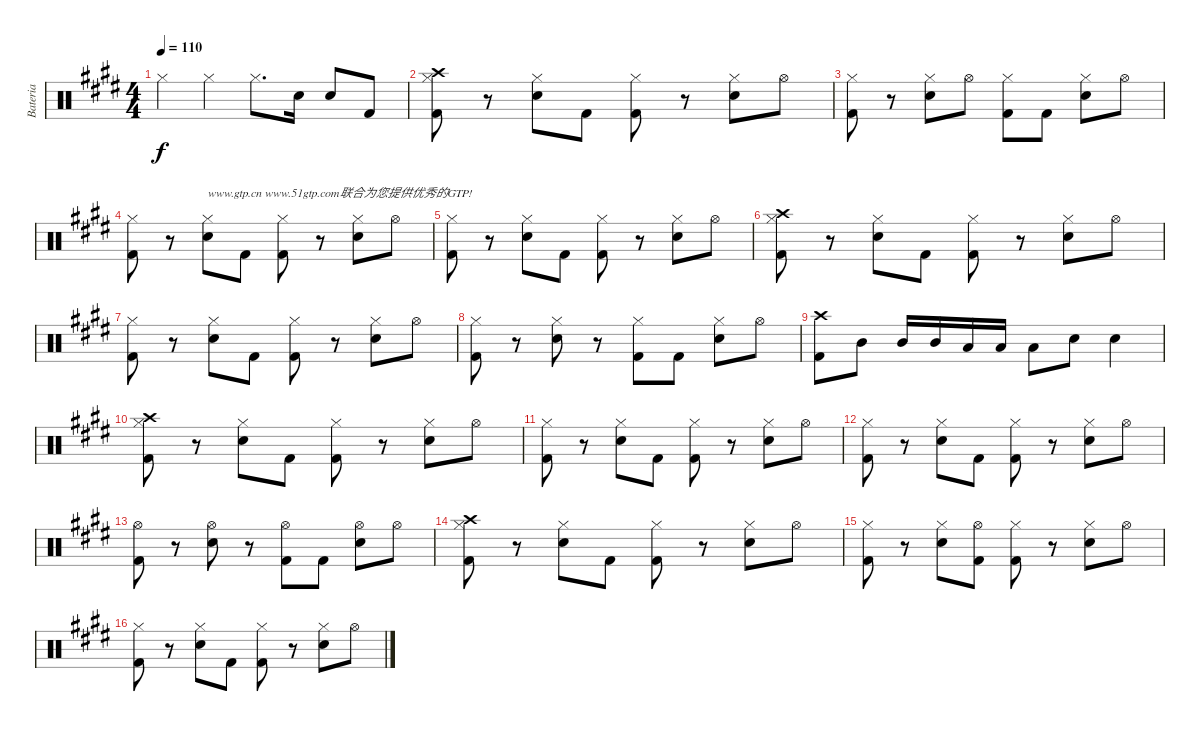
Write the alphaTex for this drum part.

\track ("Bateria" "Bateria") {instrument percussion}
\staff {score}
\articulation defaults
\ts (4 4)
\section ("" "")
\tempo 110
\clef neutral
\ks e "Hi-Hat (closed)".4{dy f} "Hi-Hat (closed)".4 "Hi-Hat (closed)".8{d} "Snare (hit) 2".16 "Snare (hit) 2".8 "Kick (hit) 2".8
|
("Hi-Hat (closed)" "Kick (hit) 2" "Crash high (hit)").8 r.8 ("Hi-Hat (closed)" "Snare (hit) 2").8 "Kick (hit) 2".8 ("Hi-Hat (closed)" "Kick (hit) 2").8 r.8 ("Hi-Hat (closed)" "Snare (hit) 2").8 "Hi-Hat (open)".8 |
("Hi-Hat (closed)" "Kick (hit) 2").8 r.8 ("Hi-Hat (closed)" "Snare (hit) 2").8 "Hi-Hat (open)".8 ("Hi-Hat (closed)" "Kick (hit) 2").8 "Kick (hit) 2".8 ("Hi-Hat (closed)" "Snare (hit) 2").8 "Hi-Hat (open)".8 |
("Hi-Hat (closed)" "Kick (hit) 2").8 r.8 ("Hi-Hat (closed)" "Snare (hit) 2").8{txt "www.gtp.cn www.51gtp.com联合为您提供优秀的GTP!"} "Kick (hit) 2".8 ("Hi-Hat (closed)" "Kick (hit) 2").8 r.8 ("Hi-Hat (closed)" "Snare (hit) 2").8 "Hi-Hat (open)".8 |
("Hi-Hat (closed)" "Kick (hit) 2").8 r.8 ("Hi-Hat (closed)" "Snare (hit) 2").8 "Kick (hit) 2".8 ("Hi-Hat (closed)" "Kick (hit) 2").8 r.8 ("Hi-Hat (closed)" "Snare (hit) 2").8 "Hi-Hat (open)".8 |
("Hi-Hat (closed)" "Kick (hit) 2" "Crash high (hit)").8 r.8 ("Hi-Hat (closed)" "Snare (hit) 2").8 "Kick (hit) 2".8 ("Hi-Hat (closed)" "Kick (hit) 2").8 r.8 ("Hi-Hat (closed)" "Snare (hit) 2").8 "Hi-Hat (open)".8 |
("Hi-Hat (closed)" "Kick (hit) 2").8 r.8 ("Hi-Hat (closed)" "Snare (hit) 2").8 "Kick (hit) 2".8 ("Hi-Hat (closed)" "Kick (hit) 2").8 r.8 ("Hi-Hat (closed)" "Snare (hit) 2").8 "Hi-Hat (open)".8 |
("Hi-Hat (closed)" "Kick (hit) 2").8 r.8 ("Hi-Hat (closed)" "Snare (hit) 2").8 r.8 ("Hi-Hat (closed)" "Kick (hit) 2").8 "Kick (hit) 2".8 ("Hi-Hat (closed)" "Snare (hit) 2").8 "Hi-Hat (open)".8 |
("Kick (hit) 2" "Crash high (hit)").8 "Mid Tom (hit)".8 "Mid Tom (hit)".16 "Mid Tom (hit)".16 "Low Tom (hit)".16 "Low Tom (hit)".16 "Low Tom (hit)".8 "Snare (hit) 2".8 "Snare (hit) 2".4 |
("Hi-Hat (closed)" "Kick (hit) 2" "Crash high (hit)").8 r.8 ("Hi-Hat (closed)" "Snare (hit) 2").8 "Kick (hit) 2".8 ("Hi-Hat (closed)" "Kick (hit) 2").8 r.8 ("Hi-Hat (closed)" "Snare (hit) 2").8 "Hi-Hat (open)".8 |
("Hi-Hat (closed)" "Kick (hit) 2").8 r.8 ("Hi-Hat (closed)" "Snare (hit) 2").8 "Kick (hit) 2".8 ("Hi-Hat (closed)" "Kick (hit) 2").8 r.8 ("Hi-Hat (closed)" "Snare (hit) 2").8 "Hi-Hat (open)".8 |
("Hi-Hat (closed)" "Kick (hit) 2").8 r.8 ("Hi-Hat (closed)" "Snare (hit) 2").8 "Kick (hit) 2".8 ("Hi-Hat (closed)" "Kick (hit) 2").8 r.8 ("Hi-Hat (closed)" "Snare (hit) 2").8 "Hi-Hat (open)".8 |
("Hi-Hat (open)" "Kick (hit) 2").8 r.8 ("Hi-Hat (open)" "Snare (hit) 2").8 r.8 ("Hi-Hat (open)" "Kick (hit) 2").8 "Kick (hit) 2".8 ("Hi-Hat (open)" "Snare (hit) 2").8 "Hi-Hat (open)".8 |
("Hi-Hat (closed)" "Kick (hit) 2" "Crash high (hit)").8 r.8 ("Hi-Hat (closed)" "Snare (hit) 2").8 "Kick (hit) 2".8 ("Hi-Hat (closed)" "Kick (hit) 2").8 r.8 ("Hi-Hat (closed)" "Snare (hit) 2").8 "Hi-Hat (open)".8 |
("Hi-Hat (closed)" "Kick (hit) 2").8 r.8 ("Hi-Hat (closed)" "Snare (hit) 2").8 ("Hi-Hat (open)" "Kick (hit) 2").8 ("Hi-Hat (closed)" "Kick (hit) 2").8 r.8 ("Hi-Hat (closed)" "Snare (hit) 2").8 "Hi-Hat (open)".8 |
("Hi-Hat (closed)" "Kick (hit) 2").8 r.8 ("Hi-Hat (closed)" "Snare (hit) 2").8 "Kick (hit) 2".8 ("Hi-Hat (closed)" "Kick (hit) 2").8 r.8 ("Hi-Hat (closed)" "Snare (hit) 2").8 "Hi-Hat (open)".8
